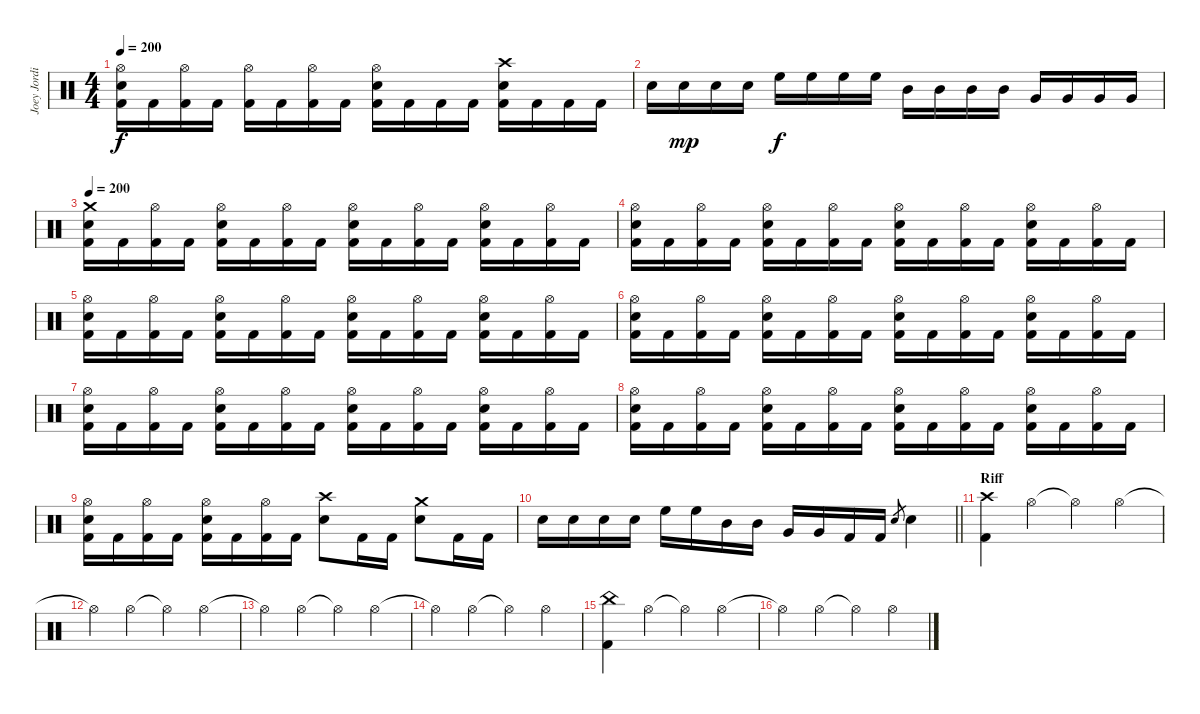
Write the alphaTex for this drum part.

\track ("Joey Jordison" "Joey Jordi") {instrument percussion}
\staff {score}
\articulation defaults
\ts (4 4)
\tempo 200
\clef neutral
\ks c
("Hi-Hat (open)" "Electric Snare (hit)" "Kick (hit) 2").16{dy f} "Kick (hit) 2".16 ("Hi-Hat (open)" "Kick (hit) 2").16 "Kick (hit) 2".16 ("Hi-Hat (open)" "Kick (hit) 2").16 "Kick (hit) 2".16 ("Hi-Hat (open)" "Kick (hit) 2").16 "Kick (hit) 2".16 ("Hi-Hat (open)" "Electric Snare (hit)" "Kick (hit) 2").16 "Kick (hit) 2".16 "Kick (hit) 2".16 "Kick (hit) 2".16 ("Crash high (hit)" "Electric Snare (hit)" "Kick (hit) 2").16 "Kick (hit) 2".16 "Kick (hit) 2".16 "Kick (hit) 2".16 |
"Electric Snare (hit)".16 "Electric Snare (hit)".16{dy mp} "Electric Snare (hit)".16 "Electric Snare (hit)".16 "High Floor Tom (hit)".16{dy f} "High Floor Tom (hit)".16 "High Floor Tom (hit)".16 "High Floor Tom (hit)".16 "Mid Tom (hit)".16 "Mid Tom (hit)".16 "Mid Tom (hit)".16 "Mid Tom (hit)".16 "Very Low Tom (hit)".16 "Very Low Tom (hit)".16 "Very Low Tom (hit)".16 "Very Low Tom (hit)".16 |
\tempo 200
("Crash medium (hit)" "Electric Snare (hit)" "Kick (hit) 2").16 "Kick (hit) 2".16 ("Hi-Hat (open)" "Kick (hit) 2").16 "Kick (hit) 2".16 ("Hi-Hat (open)" "Electric Snare (hit)" "Kick (hit) 2").16 "Kick (hit) 2".16 ("Hi-Hat (open)" "Kick (hit) 2").16 "Kick (hit) 2".16 ("Hi-Hat (open)" "Electric Snare (hit)" "Kick (hit) 2").16 "Kick (hit) 2".16 ("Hi-Hat (open)" "Kick (hit) 2").16 "Kick (hit) 2".16 ("Hi-Hat (open)" "Electric Snare (hit)" "Kick (hit) 2").16 "Kick (hit) 2".16 ("Hi-Hat (open)" "Kick (hit) 2").16 "Kick (hit) 2".16 |
("Hi-Hat (open)" "Electric Snare (hit)" "Kick (hit) 2").16 "Kick (hit) 2".16 ("Hi-Hat (open)" "Kick (hit) 2").16 "Kick (hit) 2".16 ("Hi-Hat (open)" "Electric Snare (hit)" "Kick (hit) 2").16 "Kick (hit) 2".16 ("Hi-Hat (open)" "Kick (hit) 2").16 "Kick (hit) 2".16 ("Hi-Hat (open)" "Electric Snare (hit)" "Kick (hit) 2").16 "Kick (hit) 2".16 ("Hi-Hat (open)" "Kick (hit) 2").16 "Kick (hit) 2".16 ("Hi-Hat (open)" "Electric Snare (hit)" "Kick (hit) 2").16 "Kick (hit) 2".16 ("Hi-Hat (open)" "Kick (hit) 2").16 "Kick (hit) 2".16 |
("Hi-Hat (open)" "Electric Snare (hit)" "Kick (hit) 2").16 "Kick (hit) 2".16 ("Hi-Hat (open)" "Kick (hit) 2").16 "Kick (hit) 2".16 ("Hi-Hat (open)" "Electric Snare (hit)" "Kick (hit) 2").16 "Kick (hit) 2".16 ("Hi-Hat (open)" "Kick (hit) 2").16 "Kick (hit) 2".16 ("Hi-Hat (open)" "Electric Snare (hit)" "Kick (hit) 2").16 "Kick (hit) 2".16 ("Hi-Hat (open)" "Kick (hit) 2").16 "Kick (hit) 2".16 ("Hi-Hat (open)" "Electric Snare (hit)" "Kick (hit) 2").16 "Kick (hit) 2".16 ("Hi-Hat (open)" "Kick (hit) 2").16 "Kick (hit) 2".16 |
("Hi-Hat (open)" "Electric Snare (hit)" "Kick (hit) 2").16 "Kick (hit) 2".16 ("Hi-Hat (open)" "Kick (hit) 2").16 "Kick (hit) 2".16 ("Hi-Hat (open)" "Electric Snare (hit)" "Kick (hit) 2").16 "Kick (hit) 2".16 ("Hi-Hat (open)" "Kick (hit) 2").16 "Kick (hit) 2".16 ("Hi-Hat (open)" "Electric Snare (hit)" "Kick (hit) 2").16 "Kick (hit) 2".16 ("Hi-Hat (open)" "Kick (hit) 2").16 "Kick (hit) 2".16 ("Hi-Hat (open)" "Electric Snare (hit)" "Kick (hit) 2").16 "Kick (hit) 2".16 ("Hi-Hat (open)" "Kick (hit) 2").16 "Kick (hit) 2".16 |
("Hi-Hat (open)" "Electric Snare (hit)" "Kick (hit) 2").16 "Kick (hit) 2".16 ("Hi-Hat (open)" "Kick (hit) 2").16 "Kick (hit) 2".16 ("Hi-Hat (open)" "Electric Snare (hit)" "Kick (hit) 2").16 "Kick (hit) 2".16 ("Hi-Hat (open)" "Kick (hit) 2").16 "Kick (hit) 2".16 ("Hi-Hat (open)" "Electric Snare (hit)" "Kick (hit) 2").16 "Kick (hit) 2".16 ("Hi-Hat (open)" "Kick (hit) 2").16 "Kick (hit) 2".16 ("Hi-Hat (open)" "Electric Snare (hit)" "Kick (hit) 2").16 "Kick (hit) 2".16 ("Hi-Hat (open)" "Kick (hit) 2").16 "Kick (hit) 2".16 |
("Hi-Hat (open)" "Electric Snare (hit)" "Kick (hit) 2").16 "Kick (hit) 2".16 ("Hi-Hat (open)" "Kick (hit) 2").16 "Kick (hit) 2".16 ("Hi-Hat (open)" "Electric Snare (hit)" "Kick (hit) 2").16 "Kick (hit) 2".16 ("Hi-Hat (open)" "Kick (hit) 2").16 "Kick (hit) 2".16 ("Hi-Hat (open)" "Electric Snare (hit)" "Kick (hit) 2").16 "Kick (hit) 2".16 ("Hi-Hat (open)" "Kick (hit) 2").16 "Kick (hit) 2".16 ("Hi-Hat (open)" "Electric Snare (hit)" "Kick (hit) 2").16 "Kick (hit) 2".16 ("Hi-Hat (open)" "Kick (hit) 2").16 "Kick (hit) 2".16 |
("Hi-Hat (open)" "Electric Snare (hit)" "Kick (hit) 2").16 "Kick (hit) 2".16 ("Hi-Hat (open)" "Kick (hit) 2").16 "Kick (hit) 2".16 ("Hi-Hat (open)" "Electric Snare (hit)" "Kick (hit) 2").16 "Kick (hit) 2".16 ("Hi-Hat (open)" "Kick (hit) 2").16 "Kick (hit) 2".16 ("Crash high (hit)" "Electric Snare (hit)").8 "Kick (hit) 2".16 "Kick (hit) 2".16 ("Crash medium (hit)" "Electric Snare (hit)").8 "Kick (hit) 2".16 "Kick (hit) 2".16 |
\barLineRight lightlight "Electric Snare (hit)".16 "Electric Snare (hit)".16 "Electric Snare (hit)".16 "Electric Snare (hit)".16 "High Floor Tom (hit)".16 "High Floor Tom (hit)".16 "Mid Tom (hit)".16 "Mid Tom (hit)".16 "Very Low Tom (hit)".16 "Very Low Tom (hit)".16 "Kick (hit) 2".16 "Kick (hit) 2".16 "Electric Snare (hit)".8{gr} "Electric Snare (hit)".4
|
\section ("" "Riff ")
("Crash high (hit)" "Kick (hit) 2").4 "Hi-Hat (open)".4 "Hi-Hat (open)"{t}.4 "Hi-Hat (open)".4 |
"Hi-Hat (open)"{t}.4 "Hi-Hat (open)".4 "Hi-Hat (open)"{t}.4 "Hi-Hat (open)".4 |
"Hi-Hat (open)"{t}.4 "Hi-Hat (open)".4 "Hi-Hat (open)"{t}.4 "Hi-Hat (open)".4 |
"Hi-Hat (open)"{t}.4 "Hi-Hat (open)".4 "Hi-Hat (open)"{t}.4 "Hi-Hat (open)".4 |
("China (hit)" "Kick (hit) 2").4 "Hi-Hat (open)".4 "Hi-Hat (open)"{t}.4 "Hi-Hat (open)".4 |
"Hi-Hat (open)"{t}.4 "Hi-Hat (open)".4 "Hi-Hat (open)"{t}.4 "Hi-Hat (open)".4
